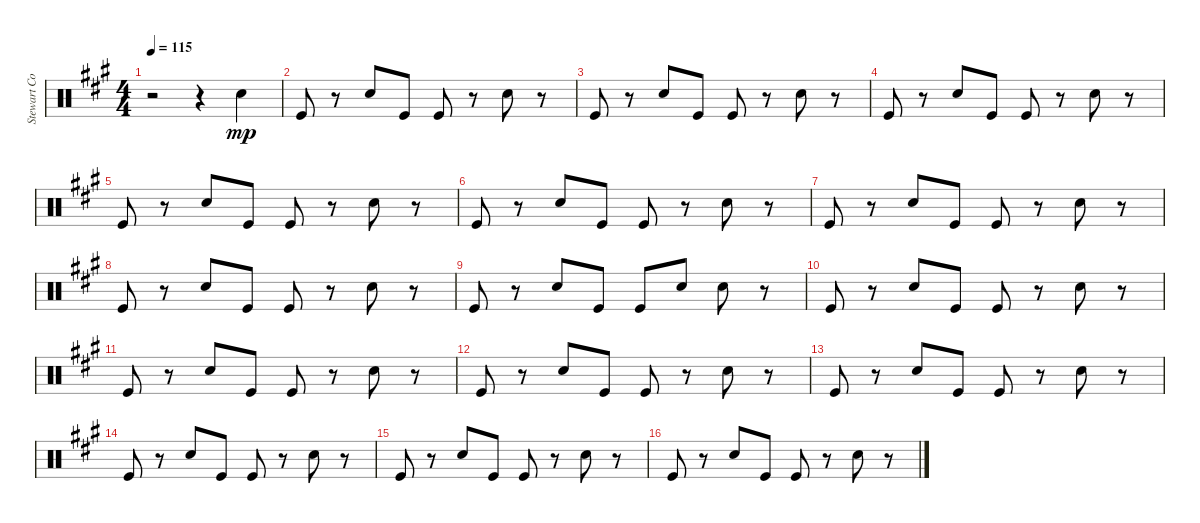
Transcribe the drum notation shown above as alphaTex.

\track ("Stewart Copeland" "Stewart Co") {instrument percussion}
\staff {score}
\articulation defaults
\ts (4 4)
\tempo 115
\clef neutral
\ks a
r.2{dy mp} r.4 "Snare (hit) 2".4 |
"Kick (hit)".8 r.8 "Snare (hit) 2".8 "Kick (hit)".8 "Kick (hit)".8 r.8 "Snare (hit) 2".8 r.8 |
"Kick (hit)".8 r.8 "Snare (hit) 2".8 "Kick (hit)".8 "Kick (hit)".8 r.8 "Snare (hit) 2".8 r.8 |
"Kick (hit)".8 r.8 "Snare (hit) 2".8 "Kick (hit)".8 "Kick (hit)".8 r.8 "Snare (hit) 2".8 r.8 |
"Kick (hit)".8 r.8 "Snare (hit) 2".8 "Kick (hit)".8 "Kick (hit)".8 r.8 "Snare (hit) 2".8 r.8 |
"Kick (hit)".8 r.8 "Snare (hit) 2".8 "Kick (hit)".8 "Kick (hit)".8 r.8 "Snare (hit) 2".8 r.8 |
"Kick (hit)".8 r.8 "Snare (hit) 2".8 "Kick (hit)".8 "Kick (hit)".8 r.8 "Snare (hit) 2".8 r.8 |
"Kick (hit)".8 r.8 "Snare (hit) 2".8 "Kick (hit)".8 "Kick (hit)".8 r.8 "Snare (hit) 2".8 r.8 |
"Kick (hit)".8 r.8 "Snare (hit) 2".8 "Kick (hit)".8 "Kick (hit)".8 "Snare (hit) 2".8 "Snare (hit) 2".8 r.8 |
"Kick (hit)".8 r.8 "Snare (hit) 2".8 "Kick (hit)".8 "Kick (hit)".8 r.8 "Snare (hit) 2".8 r.8 |
"Kick (hit)".8 r.8 "Snare (hit) 2".8 "Kick (hit)".8 "Kick (hit)".8 r.8 "Snare (hit) 2".8 r.8 |
"Kick (hit)".8 r.8 "Snare (hit) 2".8 "Kick (hit)".8 "Kick (hit)".8 r.8 "Snare (hit) 2".8 r.8 |
"Kick (hit)".8 r.8 "Snare (hit) 2".8 "Kick (hit)".8 "Kick (hit)".8 r.8 "Snare (hit) 2".8 r.8 |
"Kick (hit)".8 r.8 "Snare (hit) 2".8 "Kick (hit)".8 "Kick (hit)".8 r.8 "Snare (hit) 2".8 r.8 |
"Kick (hit)".8 r.8 "Snare (hit) 2".8 "Kick (hit)".8 "Kick (hit)".8 r.8 "Snare (hit) 2".8 r.8 |
"Kick (hit)".8 r.8 "Snare (hit) 2".8 "Kick (hit)".8 "Kick (hit)".8 r.8 "Snare (hit) 2".8 r.8
